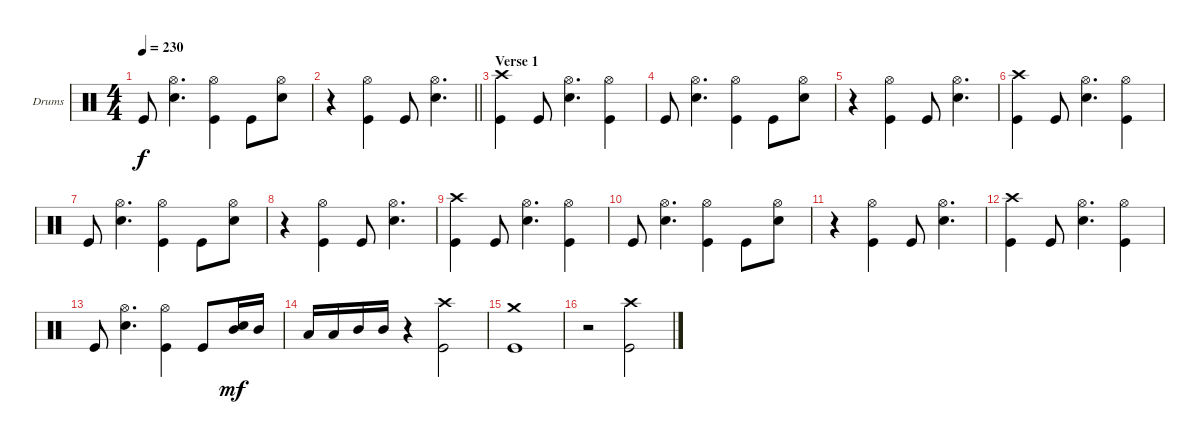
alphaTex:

\bracketExtendMode groupsimilarinstruments
\firstSystemTrackNameOrientation horizontal
\otherSystemsTrackNameOrientation horizontal
\track ("Drumkit" "Drums") {instrument percussion}
\staff {score}
\articulation defaults
\ts (4 4)
\tempo 230
\clef neutral
\ks c "Kick (hit)".8{dy f}
("Hi-Hat (open)" "Snare (hit) 2").4{d} ("Hi-Hat (open)" "Kick (hit)").4 "Kick (hit)".8 ("Hi-Hat (open)" "Snare (hit) 2").8 |
\barLineRight lightlight
r.4 ("Hi-Hat (open)" "Kick (hit)").4 "Kick (hit)".8 ("Hi-Hat (open)" "Snare (hit) 2").4{d} |
\section ("" "Verse 1")
("Crash high (hit)" "Kick (hit)").4 "Kick (hit)".8 ("Hi-Hat (open)" "Snare (hit) 2").4{d} ("Hi-Hat (open)" "Kick (hit)").4 |
"Kick (hit)".8 ("Hi-Hat (open)" "Snare (hit) 2").4{d} ("Hi-Hat (open)" "Kick (hit)").4 "Kick (hit)".8 ("Hi-Hat (open)" "Snare (hit) 2").8 |
r.4 ("Hi-Hat (open)" "Kick (hit)").4 "Kick (hit)".8 ("Hi-Hat (open)" "Snare (hit) 2").4{d} |
("Crash high (hit)" "Kick (hit)").4 "Kick (hit)".8 ("Hi-Hat (open)" "Snare (hit) 2").4{d} ("Hi-Hat (open)" "Kick (hit)").4 |
"Kick (hit)".8 ("Hi-Hat (open)" "Snare (hit) 2").4{d} ("Hi-Hat (open)" "Kick (hit)").4 "Kick (hit)".8 ("Hi-Hat (open)" "Snare (hit) 2").8 |
r.4 ("Hi-Hat (open)" "Kick (hit)").4 "Kick (hit)".8 ("Hi-Hat (open)" "Snare (hit) 2").4{d} |
("Crash high (hit)" "Kick (hit)").4 "Kick (hit)".8 ("Hi-Hat (open)" "Snare (hit) 2").4{d} ("Hi-Hat (open)" "Kick (hit)").4 |
"Kick (hit)".8 ("Hi-Hat (open)" "Snare (hit) 2").4{d} ("Hi-Hat (open)" "Kick (hit)").4 "Kick (hit)".8 ("Hi-Hat (open)" "Snare (hit) 2").8 |
r.4 ("Hi-Hat (open)" "Kick (hit)").4 "Kick (hit)".8 ("Hi-Hat (open)" "Snare (hit) 2").4{d} |
("Crash high (hit)" "Kick (hit)").4 "Kick (hit)".8 ("Hi-Hat (open)" "Snare (hit) 2").4{d} ("Hi-Hat (open)" "Kick (hit)").4 |
"Kick (hit)".8 ("Hi-Hat (open)" "Snare (hit) 2").4{d} ("Hi-Hat (open)" "Kick (hit)").4 "Kick (hit)".8 ("Snare (hit) 2" "Mid Tom (hit)").16{dy mf} "Mid Tom (hit)".16 |
"Low Tom (hit)".16 "Low Tom (hit)".16 "Mid Tom (hit)".16 "Mid Tom (hit)".16 r.4 ("Crash high (hit)" "Kick (hit)").2 |
("Crash medium (hit)" "Kick (hit)").1 |
r.2 ("Crash high (hit)" "Kick (hit)").2
